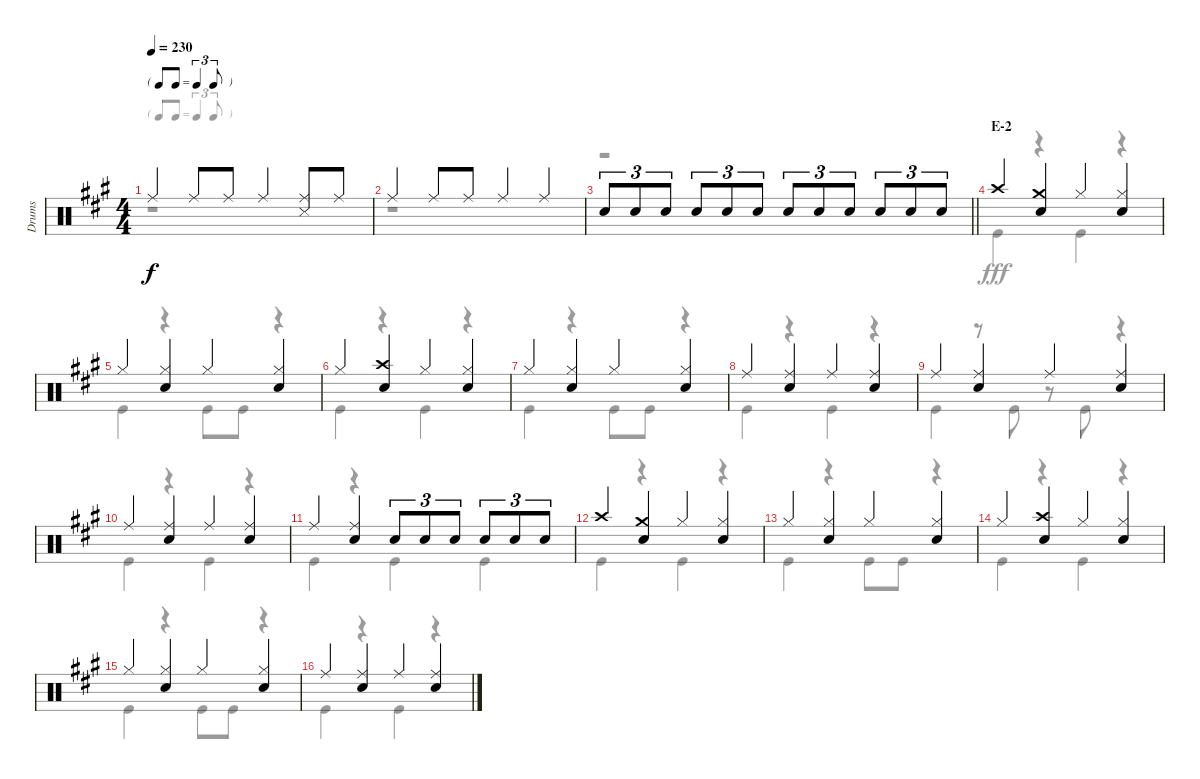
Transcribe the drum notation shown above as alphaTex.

\track ("Drums" "Drums") {instrument percussion}
\staff {score}
\articulation defaults
\voice
\ts (4 4)
\tf triplet8th
\tempo 230
\clef neutral
\ks a "Ride (middle)".4{dy f} "Ride (middle)".8 "Ride (middle)".8 "Ride (middle)".4
("Ride (middle)" "Snare (side stick) 3").8 "Ride (middle)".8 |
"Ride (middle)".4 "Ride (middle)".8 "Ride (middle)".8 "Ride (middle)".4 "Ride (middle)".4 |
\barLineRight lightlight "Snare (hit) 2".8{tu (3 2)} "Snare (hit) 2".8{tu (3 2)} "Snare (hit) 2".8{tu (3 2)} "Snare (hit) 2".8{tu (3 2)} "Snare (hit) 2".8{tu (3 2)} "Snare (hit) 2".8{tu (3 2)} "Snare (hit) 2".8{tu (3 2)} "Snare (hit) 2".8{tu (3 2)} "Snare (hit) 2".8{tu (3 2)} "Snare (hit) 2".8{tu (3 2)} "Snare (hit) 2".8{tu (3 2)} "Snare (hit) 2".8{tu (3 2)}
|
\section ("" "E-2")
"Crash high (hit)".4 ("Crash medium (hit)" "Snare (hit) 2").4 "Hi-Hat (closed)".4 ("Hi-Hat (closed)" "Snare (hit) 2").4 |
"Hi-Hat (closed)".4 ("Hi-Hat (closed)" "Snare (hit) 2").4 "Hi-Hat (closed)".4 ("Hi-Hat (closed)" "Snare (hit) 2").4 |
"Hi-Hat (closed)".4 ("Crash high (hit)" "Snare (hit) 2").4 "Hi-Hat (closed)".4 ("Hi-Hat (closed)" "Snare (hit) 2").4 |
"Hi-Hat (closed)".4 ("Hi-Hat (closed)" "Snare (hit) 2").4 "Hi-Hat (closed)".4 ("Hi-Hat (closed)" "Snare (hit) 2").4 |
"Ride (middle)".4 ("Ride (middle)" "Snare (hit) 2").4 "Ride (middle)".4 ("Ride (middle)" "Snare (hit) 2").4 |
"Ride (middle)".4 ("Ride (middle)" "Snare (hit) 2").4 "Ride (middle)".4 ("Ride (middle)" "Snare (hit) 2").4 |
"Ride (middle)".4 ("Ride (middle)" "Snare (hit) 2").4 "Ride (middle)".4 ("Ride (middle)" "Snare (hit) 2").4 |
"Ride (middle)".4 ("Ride (middle)" "Snare (hit) 2").4 "Snare (hit) 2".8{tu (3 2)} "Snare (hit) 2".8{tu (3 2)} "Snare (hit) 2".8{tu (3 2)} "Snare (hit) 2".8{tu (3 2)} "Snare (hit) 2".8{tu (3 2)} "Snare (hit) 2".8{tu (3 2)} |
"Crash high (hit)".4 ("Crash medium (hit)" "Snare (hit) 2").4 "Hi-Hat (closed)".4 ("Hi-Hat (closed)" "Snare (hit) 2").4 |
"Hi-Hat (closed)".4 ("Hi-Hat (closed)" "Snare (hit) 2").4 "Hi-Hat (closed)".4 ("Hi-Hat (closed)" "Snare (hit) 2").4 |
"Hi-Hat (closed)".4 ("Crash high (hit)" "Snare (hit) 2").4 "Hi-Hat (closed)".4 ("Hi-Hat (closed)" "Snare (hit) 2").4 |
"Hi-Hat (closed)".4 ("Hi-Hat (closed)" "Snare (hit) 2").4 "Hi-Hat (closed)".4 ("Hi-Hat (closed)" "Snare (hit) 2").4 |
"Ride (middle)".4 ("Ride (middle)" "Snare (hit) 2").4 "Ride (middle)".4 ("Ride (middle)" "Snare (hit) 2").4
\voice
\clef neutral
\ottava regular
\simile none
\ks a
r.1{dy fff} |
r.1 |
\barLineRight lightlight
r.1 |
"Kick (hit)".4 r.4 "Kick (hit)".4 r.4 |
"Kick (hit)".4 r.4 "Kick (hit)".8 "Kick (hit)".8 r.4 |
"Kick (hit)".4 r.4 "Kick (hit)".4 r.4 |
"Kick (hit)".4 r.4 "Kick (hit)".8 "Kick (hit)".8 r.4 |
"Kick (hit)".4 r.4 "Kick (hit)".4 r.4 |
"Kick (hit)".4 r.8 "Kick (hit)".8 r.8 "Kick (hit)".8 r.4 |
"Kick (hit)".4 r.4 "Kick (hit)".4 r.4 |
"Kick (hit)".4 r.4 "Kick (hit)".4 "Kick (hit)".4 |
"Kick (hit)".4 r.4 "Kick (hit)".4 r.4 |
"Kick (hit)".4 r.4 "Kick (hit)".8 "Kick (hit)".8 r.4 |
"Kick (hit)".4 r.4 "Kick (hit)".4 r.4 |
"Kick (hit)".4 r.4 "Kick (hit)".8 "Kick (hit)".8 r.4 |
"Kick (hit)".4 r.4 "Kick (hit)".4 r.4
